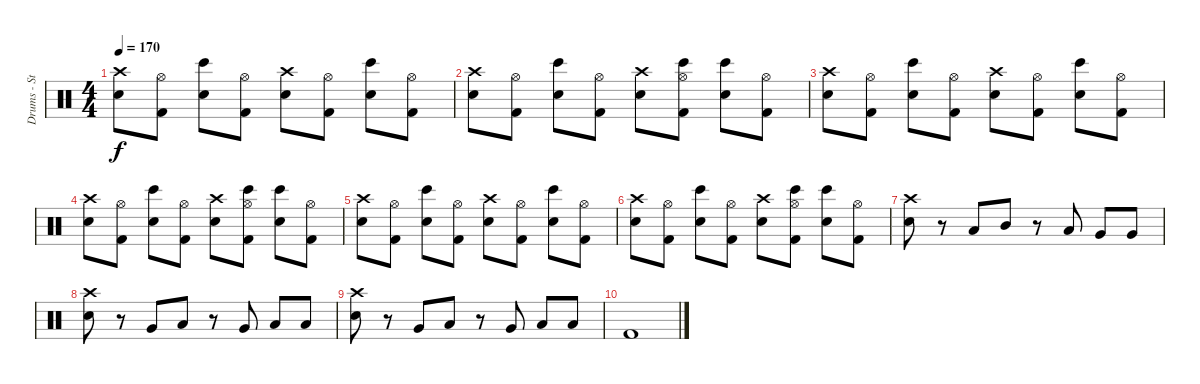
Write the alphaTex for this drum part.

\track ("Drums - Steeve" "Drums - St") {instrument percussion}
\staff {score}
\articulation defaults
\ts (4 4)
\tempo 170
\clef neutral
\ks c
("Crash high (hit)" "Electric Snare (hit)").8{dy f} ("Hi-Hat (open)" "Kick (hit) 2").8 ("Electric Snare (hit)" "Bongo High (hit)").8 ("Hi-Hat (open)" "Kick (hit) 2").8 ("Crash high (hit)" "Electric Snare (hit)").8 ("Hi-Hat (open)" "Kick (hit) 2").8 ("Electric Snare (hit)" "Bongo High (hit)").8 ("Hi-Hat (open)" "Kick (hit) 2").8 |
("Crash high (hit)" "Electric Snare (hit)").8 ("Hi-Hat (open)" "Kick (hit) 2").8 ("Electric Snare (hit)" "Bongo High (hit)").8 ("Hi-Hat (open)" "Kick (hit) 2").8 ("Crash high (hit)" "Electric Snare (hit)").8 ("Hi-Hat (open)" "Kick (hit) 2" "Bongo High (hit)").8 ("Electric Snare (hit)" "Bongo High (hit)").8 ("Hi-Hat (open)" "Kick (hit) 2").8 |
("Crash high (hit)" "Electric Snare (hit)").8 ("Hi-Hat (open)" "Kick (hit) 2").8 ("Electric Snare (hit)" "Bongo High (hit)").8 ("Hi-Hat (open)" "Kick (hit) 2").8 ("Crash high (hit)" "Electric Snare (hit)").8 ("Hi-Hat (open)" "Kick (hit) 2").8 ("Electric Snare (hit)" "Bongo High (hit)").8 ("Hi-Hat (open)" "Kick (hit) 2").8 |
("Crash high (hit)" "Electric Snare (hit)").8 ("Hi-Hat (open)" "Kick (hit) 2").8 ("Electric Snare (hit)" "Bongo High (hit)").8 ("Hi-Hat (open)" "Kick (hit) 2").8 ("Crash high (hit)" "Electric Snare (hit)").8 ("Hi-Hat (open)" "Kick (hit) 2" "Bongo High (hit)").8 ("Electric Snare (hit)" "Bongo High (hit)").8 ("Hi-Hat (open)" "Kick (hit) 2").8 |
("Crash high (hit)" "Electric Snare (hit)").8 ("Hi-Hat (open)" "Kick (hit) 2").8 ("Electric Snare (hit)" "Bongo High (hit)").8 ("Hi-Hat (open)" "Kick (hit) 2").8 ("Crash high (hit)" "Electric Snare (hit)").8 ("Hi-Hat (open)" "Kick (hit) 2").8 ("Electric Snare (hit)" "Bongo High (hit)").8 ("Hi-Hat (open)" "Kick (hit) 2").8 |
("Crash high (hit)" "Electric Snare (hit)").8 ("Hi-Hat (open)" "Kick (hit) 2").8 ("Electric Snare (hit)" "Bongo High (hit)").8 ("Hi-Hat (open)" "Kick (hit) 2").8 ("Crash high (hit)" "Electric Snare (hit)").8 ("Hi-Hat (open)" "Kick (hit) 2" "Bongo High (hit)").8 ("Electric Snare (hit)" "Bongo High (hit)").8 ("Hi-Hat (open)" "Kick (hit) 2").8 |
("Crash high (hit)" "Electric Snare (hit)").8 r.8 "Low Tom (hit)".8 "Mid Tom (hit)".8 r.8 "Low Tom (hit)".8 "Very Low Tom (hit)".8 "Very Low Tom (hit)".8 |
("Crash high (hit)" "Electric Snare (hit)").8 r.8 "Very Low Tom (hit)".8 "Low Tom (hit)".8 r.8 "Very Low Tom (hit)".8 "Low Floor Tom (hit)".8 "Low Floor Tom (hit)".8 |
("Crash high (hit)" "Electric Snare (hit)").8 r.8 "Very Low Tom (hit)".8 "Low Tom (hit)".8 r.8 "Very Low Tom (hit)".8 "Low Floor Tom (hit)".8 "Low Floor Tom (hit)".8 |
"Kick (hit) 2".1
